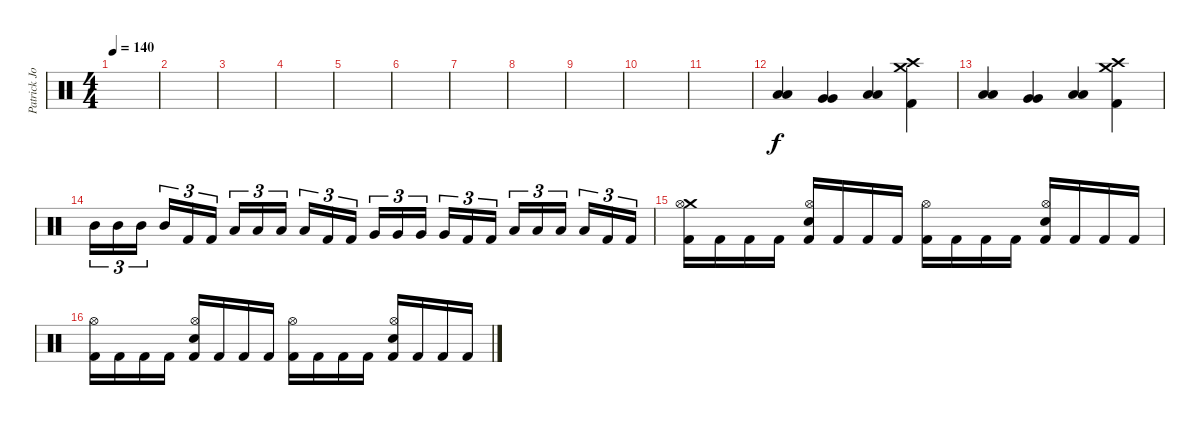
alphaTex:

\track ("Patrick Johansson" "Patrick Jo") {instrument percussion}
\staff {score}
\articulation defaults
\ts (4 4)
\tempo 140
\clef neutral
\ks c
|
|
|
|
|
|
|
|
|
|
|
("Low Tom (hit)" "Low Tom (hit)").4 ("Very Low Tom (hit)" "Very Low Tom (hit)").4 ("Low Tom (hit)" "Low Tom (hit)").4 ("Crash medium (hit)" "Crash high (hit)" "Kick (hit) 2").4 |
("Low Tom (hit)" "Low Tom (hit)").4 ("Very Low Tom (hit)" "Very Low Tom (hit)").4 ("Low Tom (hit)" "Low Tom (hit)").4 ("Crash medium (hit)" "Crash high (hit)" "Kick (hit) 2").4 |
"Mid Tom (hit)".16{tu (3 2)} "Mid Tom (hit)".16{tu (3 2)} "Mid Tom (hit)".16{tu (3 2) beam splitsecondary} "Mid Tom (hit)".16{tu (3 2)} "Kick (hit) 2".16{tu (3 2)} "Kick (hit) 2".16{tu (3 2)} "Low Tom (hit)".16{tu (3 2)} "Low Tom (hit)".16{tu (3 2)} "Low Tom (hit)".16{tu (3 2) beam splitsecondary} "Low Tom (hit)".16{tu (3 2)} "Kick (hit) 2".16{tu (3 2)} "Kick (hit) 2".16{tu (3 2)} "Very Low Tom (hit)".16{tu (3 2)} "Very Low Tom (hit)".16{tu (3 2)} "Very Low Tom (hit)".16{tu (3 2) beam splitsecondary} "Very Low Tom (hit)".16{tu (3 2)} "Kick (hit) 2".16{tu (3 2)} "Kick (hit) 2".16{tu (3 2)} "Low Floor Tom (hit)".16{tu (3 2)} "Low Floor Tom (hit)".16{tu (3 2)} "Low Floor Tom (hit)".16{tu (3 2) beam splitsecondary} "Low Floor Tom (hit)".16{tu (3 2)} "Kick (hit) 2".16{tu (3 2)} "Kick (hit) 2".16{tu (3 2)} |
("Crash medium (hit)" "Hi-Hat (open)" "Kick (hit) 2").16 "Kick (hit) 2".16 "Kick (hit) 2".16 "Kick (hit) 2".16 ("Hi-Hat (open)" "Snare (hit) 2" "Kick (hit) 2").16 "Kick (hit) 2".16 "Kick (hit) 2".16 "Kick (hit) 2".16 ("Hi-Hat (open)" "Kick (hit) 2").16 "Kick (hit) 2".16 "Kick (hit) 2".16 "Kick (hit) 2".16 ("Hi-Hat (open)" "Snare (hit) 2" "Kick (hit) 2").16 "Kick (hit) 2".16 "Kick (hit) 2".16 "Kick (hit) 2".16 |
("Hi-Hat (open)" "Kick (hit) 2").16 "Kick (hit) 2".16 "Kick (hit) 2".16 "Kick (hit) 2".16 ("Hi-Hat (open)" "Snare (hit) 2" "Kick (hit) 2").16 "Kick (hit) 2".16 "Kick (hit) 2".16 "Kick (hit) 2".16 ("Hi-Hat (open)" "Kick (hit) 2").16 "Kick (hit) 2".16 "Kick (hit) 2".16 "Kick (hit) 2".16 ("Hi-Hat (open)" "Snare (hit) 2" "Kick (hit) 2").16 "Kick (hit) 2".16 "Kick (hit) 2".16 "Kick (hit) 2".16
